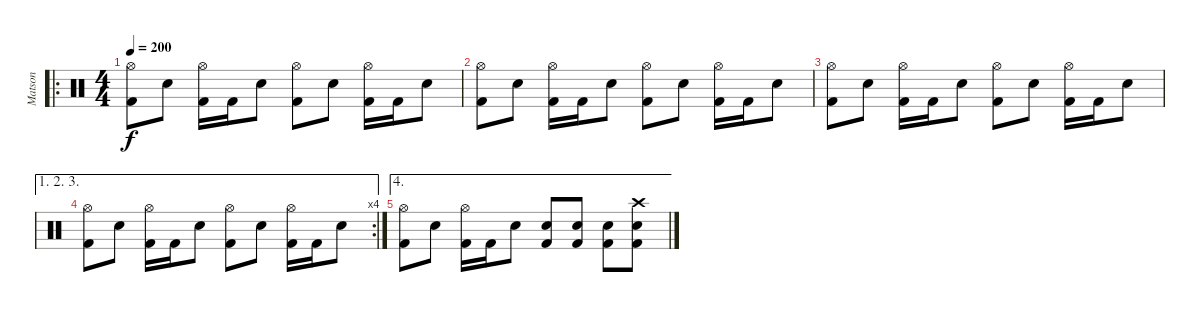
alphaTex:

\track ("Matson" "Matson") {instrument percussion}
\staff {score}
\articulation defaults
\ro
\ts (4 4)
\tempo 200
\clef neutral
\ks c
("Hi-Hat (open)" "Kick (hit) 2").8{dy f} "Electric Snare (hit)".8 ("Hi-Hat (open)" "Kick (hit) 2").16 "Kick (hit) 2".16 "Electric Snare (hit)".8 ("Hi-Hat (open)" "Kick (hit) 2").8 "Electric Snare (hit)".8 ("Hi-Hat (open)" "Kick (hit) 2").16 "Kick (hit) 2".16 "Electric Snare (hit)".8 |
("Hi-Hat (open)" "Kick (hit) 2").8 "Electric Snare (hit)".8 ("Hi-Hat (open)" "Kick (hit) 2").16 "Kick (hit) 2".16 "Electric Snare (hit)".8 ("Hi-Hat (open)" "Kick (hit) 2").8 "Electric Snare (hit)".8 ("Hi-Hat (open)" "Kick (hit) 2").16 "Kick (hit) 2".16 "Electric Snare (hit)".8 |
("Hi-Hat (open)" "Kick (hit) 2").8 "Electric Snare (hit)".8 ("Hi-Hat (open)" "Kick (hit) 2").16 "Kick (hit) 2".16 "Electric Snare (hit)".8 ("Hi-Hat (open)" "Kick (hit) 2").8 "Electric Snare (hit)".8 ("Hi-Hat (open)" "Kick (hit) 2").16 "Kick (hit) 2".16 "Electric Snare (hit)".8 |
\ae (1 2 3)
\rc 4
("Hi-Hat (open)" "Kick (hit) 2").8 "Electric Snare (hit)".8 ("Hi-Hat (open)" "Kick (hit) 2").16 "Kick (hit) 2".16 "Electric Snare (hit)".8 ("Hi-Hat (open)" "Kick (hit) 2").8 "Electric Snare (hit)".8 ("Hi-Hat (open)" "Kick (hit) 2").16 "Kick (hit) 2".16 "Electric Snare (hit)".8 |
\ae 4
("Hi-Hat (open)" "Kick (hit) 2").8 "Electric Snare (hit)".8 ("Hi-Hat (open)" "Kick (hit) 2").16 "Kick (hit) 2".16 "Electric Snare (hit)".8 ("Electric Snare (hit)" "Kick (hit) 2").8 ("Electric Snare (hit)" "Kick (hit) 2").8 ("Electric Snare (hit)" "Kick (hit) 2").8 ("Crash high (hit)" "Electric Snare (hit)" "Kick (hit) 2").8
